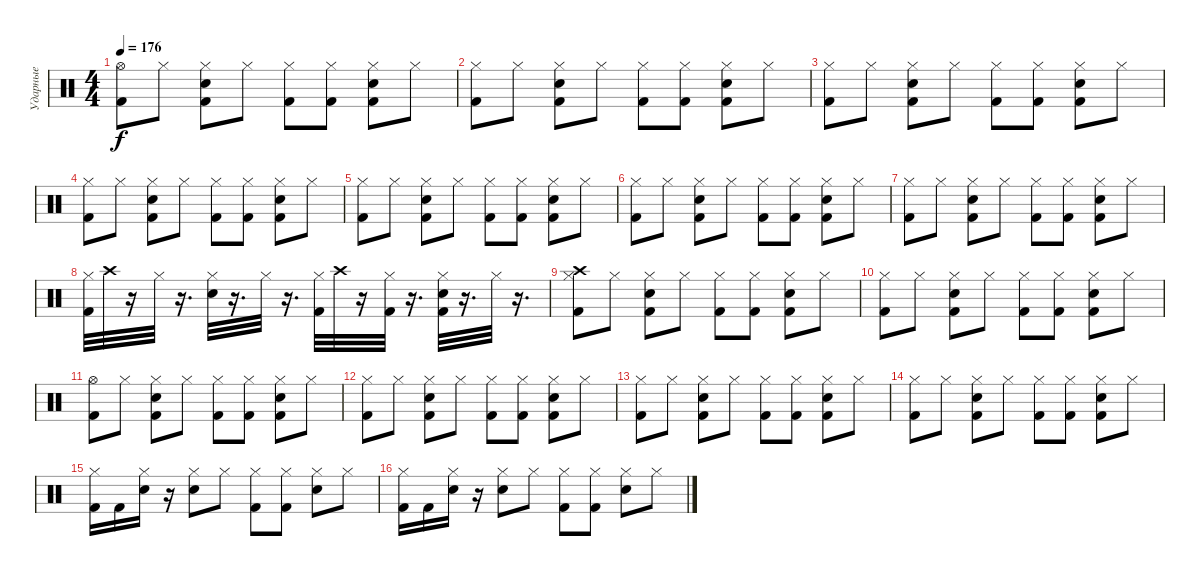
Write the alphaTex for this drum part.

\track ("Ударные" "Ударные") {instrument percussion}
\staff {score}
\articulation defaults
\ts (4 4)
\tempo 176
\clef neutral
\ks c
("Hi-Hat (open)" "Kick (hit) 2").8{dy f} "Hi-Hat (closed)".8 ("Hi-Hat (closed)" "Kick (hit) 2" "Snare (hit) 2").8 "Hi-Hat (closed)".8 ("Hi-Hat (closed)" "Kick (hit) 2").8 ("Hi-Hat (closed)" "Kick (hit) 2").8 ("Hi-Hat (closed)" "Kick (hit) 2" "Snare (hit) 2").8 "Hi-Hat (closed)".8 |
("Hi-Hat (closed)" "Kick (hit) 2").8 "Hi-Hat (closed)".8 ("Hi-Hat (closed)" "Kick (hit) 2" "Snare (hit) 2").8 "Hi-Hat (closed)".8 ("Hi-Hat (closed)" "Kick (hit) 2").8 ("Hi-Hat (closed)" "Kick (hit) 2").8 ("Hi-Hat (closed)" "Kick (hit) 2" "Snare (hit) 2").8 "Hi-Hat (closed)".8 |
("Hi-Hat (closed)" "Kick (hit) 2").8 "Hi-Hat (closed)".8 ("Hi-Hat (closed)" "Kick (hit) 2" "Snare (hit) 2").8 "Hi-Hat (closed)".8 ("Hi-Hat (closed)" "Kick (hit) 2").8 ("Hi-Hat (closed)" "Kick (hit) 2").8 ("Hi-Hat (closed)" "Kick (hit) 2" "Snare (hit) 2").8 "Hi-Hat (closed)".8 |
("Hi-Hat (closed)" "Kick (hit) 2").8 "Hi-Hat (closed)".8 ("Hi-Hat (closed)" "Kick (hit) 2" "Snare (hit) 2").8 "Hi-Hat (closed)".8 ("Hi-Hat (closed)" "Kick (hit) 2").8 ("Hi-Hat (closed)" "Kick (hit) 2").8 ("Hi-Hat (closed)" "Kick (hit) 2" "Snare (hit) 2").8 "Hi-Hat (closed)".8 |
("Hi-Hat (closed)" "Kick (hit) 2").8 "Hi-Hat (closed)".8 ("Hi-Hat (closed)" "Kick (hit) 2" "Snare (hit) 2").8 "Hi-Hat (closed)".8 ("Hi-Hat (closed)" "Kick (hit) 2").8 ("Hi-Hat (closed)" "Kick (hit) 2").8 ("Hi-Hat (closed)" "Kick (hit) 2" "Snare (hit) 2").8 "Hi-Hat (closed)".8 |
("Hi-Hat (closed)" "Kick (hit) 2").8 "Hi-Hat (closed)".8 ("Hi-Hat (closed)" "Kick (hit) 2" "Snare (hit) 2").8 "Hi-Hat (closed)".8 ("Hi-Hat (closed)" "Kick (hit) 2").8 ("Hi-Hat (closed)" "Kick (hit) 2").8 ("Hi-Hat (closed)" "Kick (hit) 2" "Snare (hit) 2").8 "Hi-Hat (closed)".8 |
("Hi-Hat (closed)" "Kick (hit) 2").8 "Hi-Hat (closed)".8 ("Hi-Hat (closed)" "Kick (hit) 2" "Snare (hit) 2").8 "Hi-Hat (closed)".8 ("Hi-Hat (closed)" "Kick (hit) 2").8 ("Hi-Hat (closed)" "Kick (hit) 2").8 ("Hi-Hat (closed)" "Kick (hit) 2" "Snare (hit) 2").8 "Hi-Hat (closed)".8 |
("Hi-Hat (closed)" "Kick (hit) 2").32 "Crash high (hit)".32 r.16 "Hi-Hat (closed)".32 r.16{d} ("Hi-Hat (closed)" "Snare (hit) 2").32 r.16{d} "Hi-Hat (closed)".32 r.16{d} ("Hi-Hat (closed)" "Kick (hit) 2").32 "Crash high (hit)".32 r.16 ("Hi-Hat (closed)" "Kick (hit) 2").32 r.16{d} ("Hi-Hat (closed)" "Snare (hit) 2" "Kick (hit) 2").32 r.16{d} "Hi-Hat (closed)".32 r.16{d} |
("Hi-Hat (closed)" "Kick (hit) 2" "Crash high (hit)").8 "Hi-Hat (closed)".8 ("Hi-Hat (closed)" "Kick (hit) 2" "Snare (hit) 2").8 "Hi-Hat (closed)".8 ("Hi-Hat (closed)" "Kick (hit) 2").8 ("Hi-Hat (closed)" "Kick (hit) 2").8 ("Hi-Hat (closed)" "Kick (hit) 2" "Snare (hit) 2").8 "Hi-Hat (closed)".8 |
("Hi-Hat (closed)" "Kick (hit) 2").8 "Hi-Hat (closed)".8 ("Hi-Hat (closed)" "Kick (hit) 2" "Snare (hit) 2").8 "Hi-Hat (closed)".8 ("Hi-Hat (closed)" "Kick (hit) 2").8 ("Hi-Hat (closed)" "Kick (hit) 2").8 ("Hi-Hat (closed)" "Kick (hit) 2" "Snare (hit) 2").8 "Hi-Hat (closed)".8 |
("Hi-Hat (open)" "Kick (hit) 2").8 "Hi-Hat (closed)".8 ("Hi-Hat (closed)" "Kick (hit) 2" "Snare (hit) 2").8 "Hi-Hat (closed)".8 ("Hi-Hat (closed)" "Kick (hit) 2").8 ("Hi-Hat (closed)" "Kick (hit) 2").8 ("Hi-Hat (closed)" "Kick (hit) 2" "Snare (hit) 2").8 "Hi-Hat (closed)".8 |
("Hi-Hat (closed)" "Kick (hit) 2").8 "Hi-Hat (closed)".8 ("Hi-Hat (closed)" "Kick (hit) 2" "Snare (hit) 2").8 "Hi-Hat (closed)".8 ("Hi-Hat (closed)" "Kick (hit) 2").8 ("Hi-Hat (closed)" "Kick (hit) 2").8 ("Hi-Hat (closed)" "Kick (hit) 2" "Snare (hit) 2").8 "Hi-Hat (closed)".8 |
("Hi-Hat (closed)" "Kick (hit) 2").8 "Hi-Hat (closed)".8 ("Hi-Hat (closed)" "Kick (hit) 2" "Snare (hit) 2").8 "Hi-Hat (closed)".8 ("Hi-Hat (closed)" "Kick (hit) 2").8 ("Hi-Hat (closed)" "Kick (hit) 2").8 ("Hi-Hat (closed)" "Kick (hit) 2" "Snare (hit) 2").8 "Hi-Hat (closed)".8 |
("Hi-Hat (closed)" "Kick (hit) 2").8 "Hi-Hat (closed)".8 ("Hi-Hat (closed)" "Kick (hit) 2" "Snare (hit) 2").8 "Hi-Hat (closed)".8 ("Hi-Hat (closed)" "Kick (hit) 2").8 ("Hi-Hat (closed)" "Kick (hit) 2").8 ("Hi-Hat (closed)" "Kick (hit) 2" "Snare (hit) 2").8 "Hi-Hat (closed)".8 |
("Hi-Hat (closed)" "Kick (hit) 2").16 "Kick (hit) 2".16 ("Hi-Hat (closed)" "Snare (hit) 2").16 r.16 ("Hi-Hat (closed)" "Snare (hit) 2").8 "Hi-Hat (closed)".8 ("Hi-Hat (closed)" "Kick (hit) 2").8 ("Hi-Hat (closed)" "Kick (hit) 2").8 ("Hi-Hat (closed)" "Snare (hit) 2").8 "Hi-Hat (closed)".8 |
("Hi-Hat (closed)" "Kick (hit) 2").16 "Kick (hit) 2".16 ("Hi-Hat (closed)" "Snare (hit) 2").16 r.16 ("Hi-Hat (closed)" "Snare (hit) 2").8 "Hi-Hat (closed)".8 ("Hi-Hat (closed)" "Kick (hit) 2").8 ("Hi-Hat (closed)" "Kick (hit) 2").8 ("Hi-Hat (closed)" "Snare (hit) 2").8 "Hi-Hat (closed)".8
